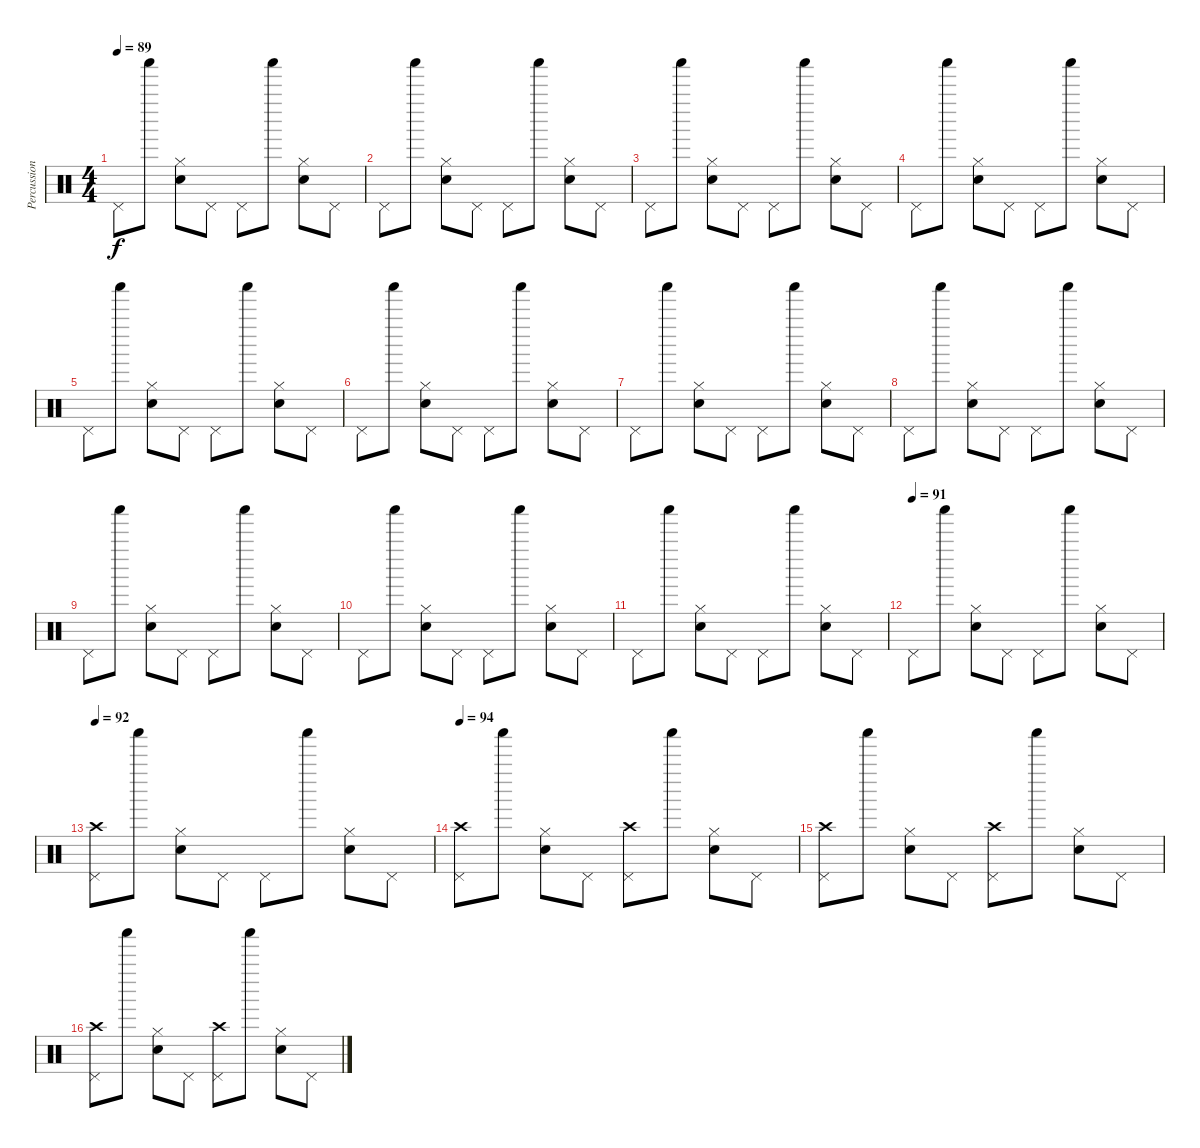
\track ("Percussion" "Percussion") {instrument percussion}
\staff {score}
\articulation defaults
\ts (4 4)
\tempo 89
\clef neutral
\ks c "Pedal Hi-Hat (hit)".8{dy f} "Shaker (hit)".8
("Hi-Hat (closed)" "Electric Snare (hit)").8 "Pedal Hi-Hat (hit)".8 "Pedal Hi-Hat (hit)".8 "Shaker (hit)".8 ("Hi-Hat (closed)" "Electric Snare (hit)").8 "Pedal Hi-Hat (hit)".8 |
"Pedal Hi-Hat (hit)".8 "Shaker (hit)".8 ("Hi-Hat (closed)" "Electric Snare (hit)").8 "Pedal Hi-Hat (hit)".8 "Pedal Hi-Hat (hit)".8 "Shaker (hit)".8 ("Hi-Hat (closed)" "Electric Snare (hit)").8 "Pedal Hi-Hat (hit)".8 |
"Pedal Hi-Hat (hit)".8 "Shaker (hit)".8 ("Hi-Hat (closed)" "Electric Snare (hit)").8 "Pedal Hi-Hat (hit)".8 "Pedal Hi-Hat (hit)".8 "Shaker (hit)".8 ("Hi-Hat (closed)" "Electric Snare (hit)").8 "Pedal Hi-Hat (hit)".8 |
"Pedal Hi-Hat (hit)".8 "Shaker (hit)".8 ("Hi-Hat (closed)" "Electric Snare (hit)").8 "Pedal Hi-Hat (hit)".8 "Pedal Hi-Hat (hit)".8 "Shaker (hit)".8 ("Hi-Hat (closed)" "Electric Snare (hit)").8 "Pedal Hi-Hat (hit)".8 |
"Pedal Hi-Hat (hit)".8 "Shaker (hit)".8 ("Hi-Hat (closed)" "Electric Snare (hit)").8 "Pedal Hi-Hat (hit)".8 "Pedal Hi-Hat (hit)".8 "Shaker (hit)".8 ("Hi-Hat (closed)" "Electric Snare (hit)").8 "Pedal Hi-Hat (hit)".8 |
"Pedal Hi-Hat (hit)".8 "Shaker (hit)".8 ("Hi-Hat (closed)" "Electric Snare (hit)").8 "Pedal Hi-Hat (hit)".8 "Pedal Hi-Hat (hit)".8 "Shaker (hit)".8 ("Hi-Hat (closed)" "Electric Snare (hit)").8 "Pedal Hi-Hat (hit)".8 |
"Pedal Hi-Hat (hit)".8 "Shaker (hit)".8 ("Hi-Hat (closed)" "Electric Snare (hit)").8 "Pedal Hi-Hat (hit)".8 "Pedal Hi-Hat (hit)".8 "Shaker (hit)".8 ("Hi-Hat (closed)" "Electric Snare (hit)").8 "Pedal Hi-Hat (hit)".8 |
"Pedal Hi-Hat (hit)".8 "Shaker (hit)".8 ("Hi-Hat (closed)" "Electric Snare (hit)").8 "Pedal Hi-Hat (hit)".8 "Pedal Hi-Hat (hit)".8 "Shaker (hit)".8 ("Hi-Hat (closed)" "Electric Snare (hit)").8 "Pedal Hi-Hat (hit)".8 |
"Pedal Hi-Hat (hit)".8 "Shaker (hit)".8 ("Hi-Hat (closed)" "Electric Snare (hit)").8 "Pedal Hi-Hat (hit)".8 "Pedal Hi-Hat (hit)".8 "Shaker (hit)".8 ("Hi-Hat (closed)" "Electric Snare (hit)").8 "Pedal Hi-Hat (hit)".8 |
"Pedal Hi-Hat (hit)".8 "Shaker (hit)".8 ("Hi-Hat (closed)" "Electric Snare (hit)").8 "Pedal Hi-Hat (hit)".8 "Pedal Hi-Hat (hit)".8 "Shaker (hit)".8 ("Hi-Hat (closed)" "Electric Snare (hit)").8 "Pedal Hi-Hat (hit)".8 |
"Pedal Hi-Hat (hit)".8 "Shaker (hit)".8 ("Hi-Hat (closed)" "Electric Snare (hit)").8 "Pedal Hi-Hat (hit)".8 "Pedal Hi-Hat (hit)".8 "Shaker (hit)".8 ("Hi-Hat (closed)" "Electric Snare (hit)").8 "Pedal Hi-Hat (hit)".8 |
\tempo (91)
"Pedal Hi-Hat (hit)".8 "Shaker (hit)".8 ("Hi-Hat (closed)" "Electric Snare (hit)").8 "Pedal Hi-Hat (hit)".8 "Pedal Hi-Hat (hit)".8 "Shaker (hit)".8 ("Hi-Hat (closed)" "Electric Snare (hit)").8 "Pedal Hi-Hat (hit)".8 |
\tempo 92
("Pedal Hi-Hat (hit)" "Crash high (hit)").8 "Shaker (hit)".8 ("Hi-Hat (closed)" "Electric Snare (hit)").8 "Pedal Hi-Hat (hit)".8 "Pedal Hi-Hat (hit)".8 "Shaker (hit)".8 ("Hi-Hat (closed)" "Electric Snare (hit)").8 "Pedal Hi-Hat (hit)".8 |
\tempo 94
("Pedal Hi-Hat (hit)" "Crash high (hit)").8 "Shaker (hit)".8 ("Hi-Hat (closed)" "Electric Snare (hit)").8 "Pedal Hi-Hat (hit)".8 ("Pedal Hi-Hat (hit)" "Crash high (hit)").8 "Shaker (hit)".8 ("Hi-Hat (closed)" "Electric Snare (hit)").8 "Pedal Hi-Hat (hit)".8 |
("Pedal Hi-Hat (hit)" "Crash high (hit)").8 "Shaker (hit)".8 ("Hi-Hat (closed)" "Electric Snare (hit)").8 "Pedal Hi-Hat (hit)".8 ("Pedal Hi-Hat (hit)" "Crash high (hit)").8 "Shaker (hit)".8 ("Hi-Hat (closed)" "Electric Snare (hit)").8 "Pedal Hi-Hat (hit)".8 |
("Pedal Hi-Hat (hit)" "Crash high (hit)").8 "Shaker (hit)".8 ("Hi-Hat (closed)" "Electric Snare (hit)").8 "Pedal Hi-Hat (hit)".8 ("Pedal Hi-Hat (hit)" "Crash high (hit)").8 "Shaker (hit)".8 ("Hi-Hat (closed)" "Electric Snare (hit)").8 "Pedal Hi-Hat (hit)".8
